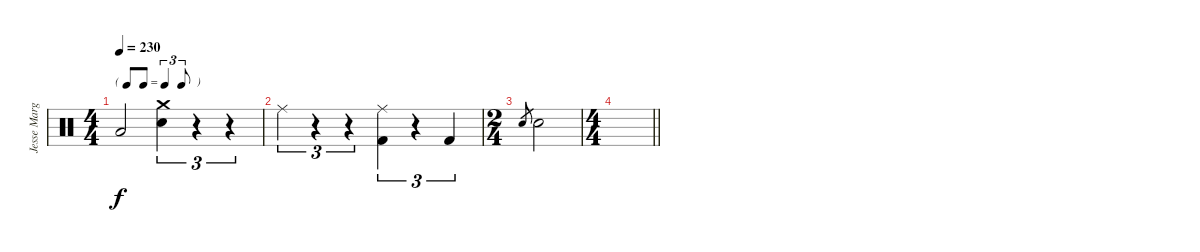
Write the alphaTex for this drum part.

\track ("Jesse Margera" "Jesse Marg") {instrument percussion}
\staff {score}
\articulation defaults
\ts (4 4)
\tf triplet8th
\tempo 230
\clef neutral
\ks c "Low Floor Tom (hit)".2{dy f}
("Crash medium (hit)" "Electric Snare (hit)").4{tu (3 2)} r.4{tu (3 2)} r.4{tu (3 2)} |
"Ride (middle)".4{tu (3 2)} r.4{tu (3 2)} r.4{tu (3 2)} ("Ride (middle)" "Kick (hit) 2").4{tu (3 2)} r.4{tu (3 2)} "Kick (hit) 2".4{tu (3 2)} |
\ts (2 4)
"Electric Snare (hit)".8{gr} "Electric Snare (hit)".2 |
\ts (4 4)
\barLineRight lightlight
